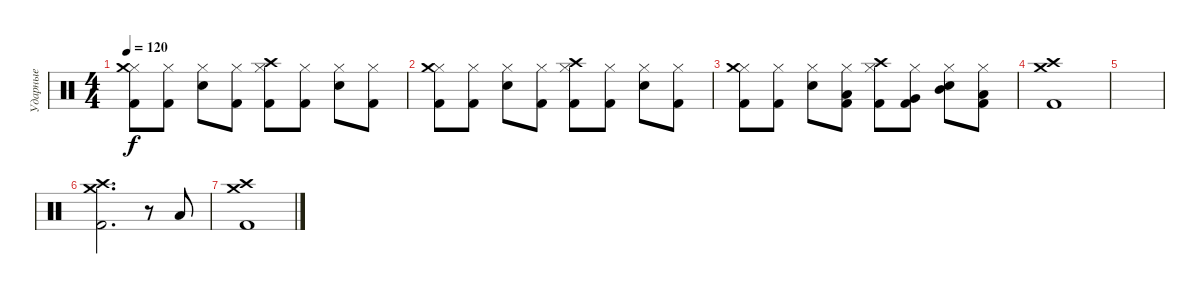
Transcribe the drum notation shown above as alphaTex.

\track ("Ударные" "Ударные") {instrument percussion}
\staff {score}
\articulation defaults
\ts (4 4)
\tempo 120
\clef neutral
\ks c
("Kick (hit) 2" "Hi-Hat (closed)" "Crash medium (hit)").8{dy f} ("Kick (hit) 2" "Hi-Hat (closed)").8 ("Snare (hit) 2" "Hi-Hat (closed)").8 ("Kick (hit) 2" "Hi-Hat (closed)").8 ("Kick (hit) 2" "Hi-Hat (closed)" "Crash high (hit)").8 ("Kick (hit) 2" "Hi-Hat (closed)").8 ("Snare (hit) 2" "Hi-Hat (closed)").8 ("Kick (hit) 2" "Hi-Hat (closed)").8 |
("Kick (hit) 2" "Hi-Hat (closed)" "Crash medium (hit)").8 ("Kick (hit) 2" "Hi-Hat (closed)").8 ("Snare (hit) 2" "Hi-Hat (closed)").8 ("Kick (hit) 2" "Hi-Hat (closed)").8 ("Kick (hit) 2" "Hi-Hat (closed)" "Crash high (hit)").8 ("Kick (hit) 2" "Hi-Hat (closed)").8 ("Snare (hit) 2" "Hi-Hat (closed)").8 ("Kick (hit) 2" "Hi-Hat (closed)").8 |
("Kick (hit) 2" "Hi-Hat (closed)" "Crash medium (hit)").8 ("Kick (hit) 2" "Hi-Hat (closed)").8 ("Snare (hit) 2" "Hi-Hat (closed)").8 ("Kick (hit) 2" "Hi-Hat (closed)" "Low Floor Tom (hit)").8 ("Kick (hit) 2" "Hi-Hat (closed)" "Crash high (hit)").8 ("Kick (hit) 2" "Hi-Hat (closed)" "Very Low Tom (hit)").8 ("Snare (hit) 2" "Hi-Hat (closed)" "Mid Tom (hit)").8 ("Kick (hit) 2" "Hi-Hat (closed)" "Low Tom (hit)").8 |
("Kick (hit) 2" "Crash high (hit)" "Crash medium (hit)").1 |
|
("Kick (hit) 2" "Crash high (hit)" "Crash medium (hit)").2{d} r.8 "Low Tom (hit)".8 |
("Kick (hit) 2" "Crash high (hit)" "Crash medium (hit)").1
